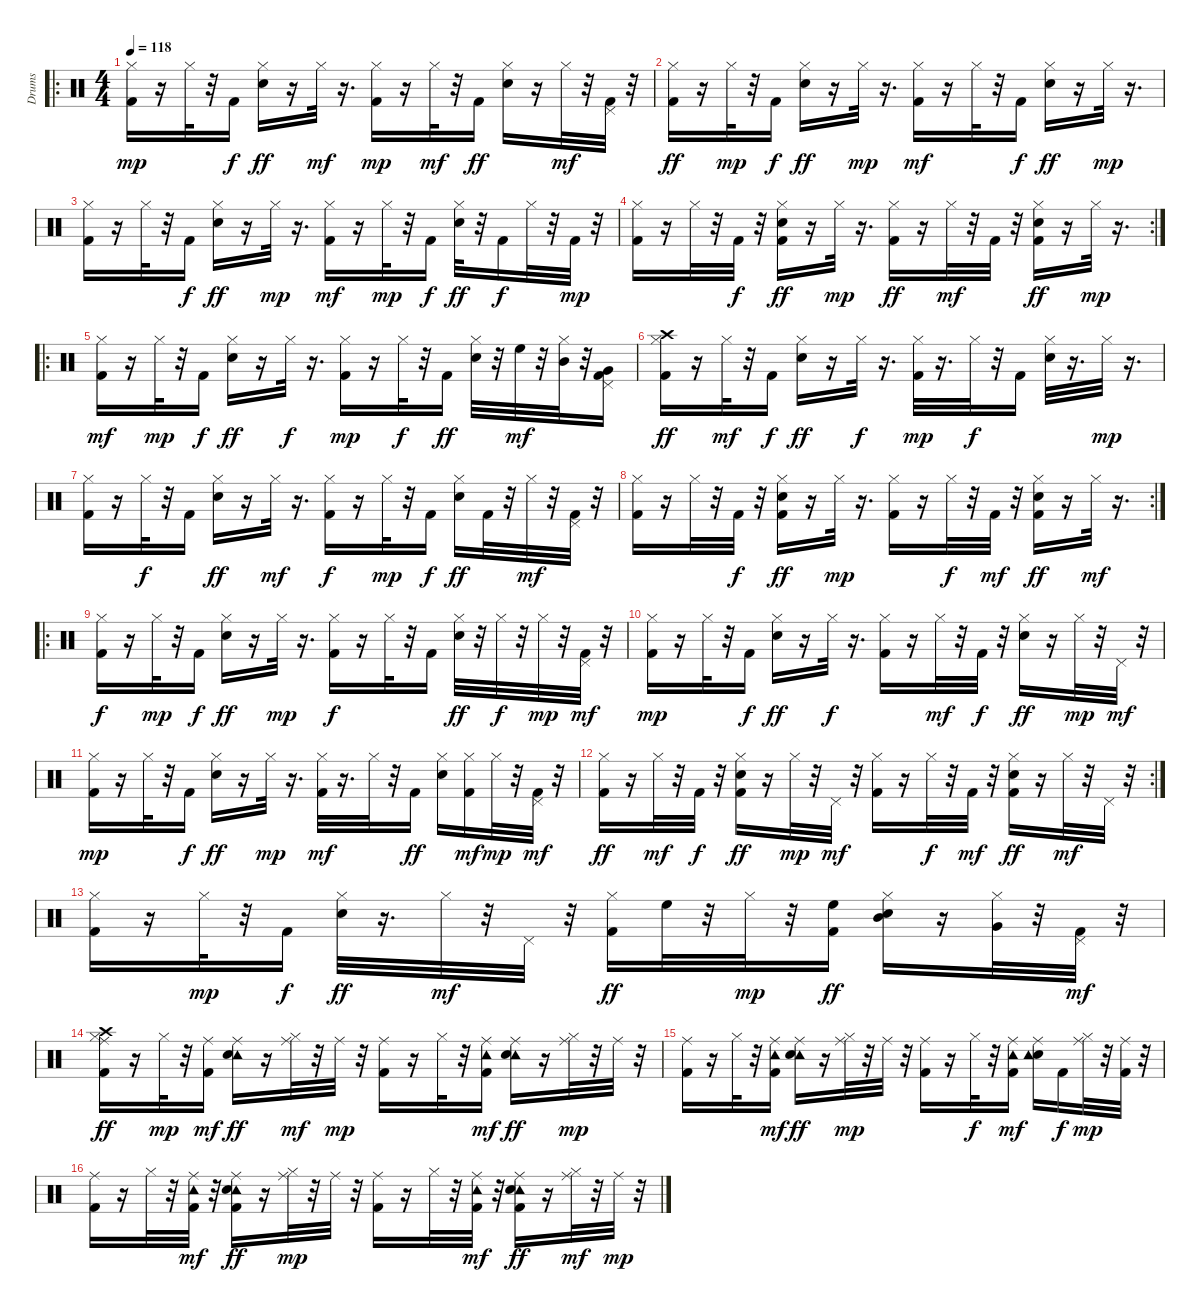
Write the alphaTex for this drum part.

\track ("Drums" "Drums") {instrument percussion}
\staff {score}
\articulation defaults
\ro
\ts (4 4)
\tempo 118
\clef neutral
\ks c
("Hi-Hat (closed)" "Kick (hit) 2").16{dy mp} r.16 "Hi-Hat (closed)".32 r.32 "Kick (hit) 2".16{dy f} ("Hi-Hat (closed)" "Electric Snare (hit)").16{dy ff} r.16 "Hi-Hat (closed)".32{dy mf} r.16{d} ("Kick (hit) 2" "Hi-Hat (closed)").16{dy mp} r.16 "Hi-Hat (closed)".32{dy mf} r.32 "Kick (hit) 2".16{dy ff} ("Hi-Hat (closed)" "Electric Snare (hit)").16 r.16 "Hi-Hat (closed)".32{dy mf} r.32 ("Kick (hit) 2" "Pedal Hi-Hat (hit)").32 r.32 |
("Kick (hit) 2" "Hi-Hat (closed)").16{dy ff} r.16 "Hi-Hat (closed)".32{dy mp} r.32 "Kick (hit) 2".16{dy f} ("Hi-Hat (closed)" "Electric Snare (hit)").16{dy ff} r.16 "Hi-Hat (closed)".32{dy mp} r.16{d} ("Kick (hit) 2" "Hi-Hat (closed)").16{dy mf} r.16 "Hi-Hat (closed)".32 r.32 "Kick (hit) 2".16{dy f} ("Hi-Hat (closed)" "Electric Snare (hit)").16{dy ff} r.16 "Hi-Hat (closed)".32{dy mp} r.16{d} |
("Kick (hit) 2" "Hi-Hat (closed)").16 r.16 "Hi-Hat (closed)".32 r.32 "Kick (hit) 2".16{dy f} ("Hi-Hat (closed)" "Electric Snare (hit)").16{dy ff} r.16 "Hi-Hat (closed)".32{dy mp} r.16{d} ("Kick (hit) 2" "Hi-Hat (closed)").16{dy mf} r.16 "Hi-Hat (closed)".32{dy mp} r.32 "Kick (hit) 2".16{dy f} ("Hi-Hat (closed)" "Electric Snare (hit)").32{dy ff} r.32 "Kick (hit) 2".16{dy f} "Hi-Hat (closed)".32 r.32 "Kick (hit) 2".32{dy mp} r.32 |
\rc 2
("Hi-Hat (closed)" "Kick (hit) 2").16 r.16 "Hi-Hat (closed)".32 r.32 "Kick (hit) 2".32{dy f} r.32 ("Kick (hit) 2" "Hi-Hat (closed)" "Electric Snare (hit)").16{dy ff} r.16 "Hi-Hat (closed)".32{dy mp} r.16{d} ("Hi-Hat (closed)" "Kick (hit) 2").16{dy ff} r.16 "Hi-Hat (closed)".32{dy mf} r.32 "Kick (hit) 2".32 r.32 ("Kick (hit) 2" "Hi-Hat (closed)" "Electric Snare (hit)").16{dy ff} r.16 "Hi-Hat (closed)".32{dy mp} r.16{d} |
\ro
("Kick (hit) 2" "Hi-Hat (closed)").16{dy mf} r.16 "Hi-Hat (closed)".32{dy mp} r.32 "Kick (hit) 2".16{dy f} ("Hi-Hat (closed)" "Electric Snare (hit)").16{dy ff} r.16 "Hi-Hat (closed)".32{dy f} r.16{d} ("Kick (hit) 2" "Hi-Hat (closed)").16{dy mp} r.16 "Hi-Hat (closed)".32{dy f} r.32 "Kick (hit) 2".16{dy ff} ("Hi-Hat (closed)" "Electric Snare (hit)").32 r.32 "High Floor Tom (hit)".32{dy mf} r.32 ("Hi-Hat (closed)" "Mid Tom (hit)").32 r.32 ("Pedal Hi-Hat (hit)" "Kick (hit) 2" "Very Low Tom (hit)").16 |
("Kick (hit) 2" "Hi-Hat (closed)" "Crash high (hit)").16{dy ff} r.16 "Hi-Hat (closed)".32{dy mf} r.32 "Kick (hit) 2".16{dy f} ("Hi-Hat (closed)" "Electric Snare (hit)").16{dy ff} r.16 "Hi-Hat (closed)".32{dy f} r.16{d} ("Kick (hit) 2" "Hi-Hat (closed)").32{dy mp} r.16{d} "Hi-Hat (closed)".32{dy f} r.32 "Kick (hit) 2".16 ("Hi-Hat (closed)" "Electric Snare (hit)").32 r.16{d} "Hi-Hat (closed)".32{dy mp} r.16{d} |
("Kick (hit) 2" "Hi-Hat (closed)").16 r.16 "Hi-Hat (closed)".32{dy f} r.32 "Kick (hit) 2".16 ("Hi-Hat (closed)" "Electric Snare (hit)").16{dy ff} r.16 "Hi-Hat (closed)".32{dy mf} r.16{d} ("Kick (hit) 2" "Hi-Hat (closed)").16{dy f} r.16 "Hi-Hat (closed)".32{dy mp} r.32 "Kick (hit) 2".16{dy f} ("Hi-Hat (closed)" "Electric Snare (hit)").16{dy ff} "Kick (hit) 2".32 r.32 "Hi-Hat (closed)".32{dy mf} r.32 ("Kick (hit) 2" "Pedal Hi-Hat (hit)").32 r.32 |
\rc 2
("Kick (hit) 2" "Hi-Hat (closed)").16 r.16 "Hi-Hat (closed)".32 r.32 "Kick (hit) 2".32{dy f} r.32 ("Hi-Hat (closed)" "Kick (hit) 2" "Electric Snare (hit)").16{dy ff} r.16 "Hi-Hat (closed)".32{dy mp} r.16{d} ("Kick (hit) 2" "Hi-Hat (closed)").16 r.16 "Hi-Hat (closed)".32{dy f} r.32 "Kick (hit) 2".32{dy mf} r.32 ("Kick (hit) 2" "Hi-Hat (closed)" "Electric Snare (hit)").16{dy ff} r.16 "Hi-Hat (closed)".32{dy mf} r.16{d} |
\ro
("Kick (hit) 2" "Hi-Hat (closed)").16{dy f} r.16 "Hi-Hat (closed)".32{dy mp} r.32 "Kick (hit) 2".16{dy f} ("Hi-Hat (closed)" "Electric Snare (hit)").16{dy ff} r.16 "Hi-Hat (closed)".32{dy mp} r.16{d} ("Kick (hit) 2" "Hi-Hat (closed)").16{dy f} r.16 "Hi-Hat (closed)".32 r.32 "Kick (hit) 2".16 ("Hi-Hat (closed)" "Electric Snare (hit)").32{dy ff} r.32 "Hi-Hat (closed)".32{dy f} r.32 "Hi-Hat (closed)".32{dy mp} r.32 ("Kick (hit) 2" "Pedal Hi-Hat (hit)").32{dy mf} r.32 |
("Hi-Hat (closed)" "Kick (hit) 2").16{dy mp} r.16 "Hi-Hat (closed)".32 r.32 "Kick (hit) 2".16{dy f} ("Hi-Hat (closed)" "Electric Snare (hit)").16{dy ff} r.16 "Hi-Hat (closed)".32{dy f} r.16{d} ("Kick (hit) 2" "Hi-Hat (closed)").16 r.16 "Hi-Hat (closed)".32{dy mf} r.32 "Kick (hit) 2".32{dy f} r.32 ("Electric Snare (hit)" "Hi-Hat (closed)").16{dy ff} r.16 "Hi-Hat (closed)".32{dy mp} r.32 "Pedal Hi-Hat (hit)".32{dy mf} r.32 |
("Kick (hit) 2" "Hi-Hat (closed)").16{dy mp} r.16 "Hi-Hat (closed)".32 r.32 "Kick (hit) 2".16{dy f} ("Hi-Hat (closed)" "Electric Snare (hit)").16{dy ff} r.16 "Hi-Hat (closed)".32{dy mp} r.16{d} ("Kick (hit) 2" "Hi-Hat (closed)").32{dy mf} r.16{d} "Hi-Hat (closed)".32 r.32 "Kick (hit) 2".16{dy ff} ("Hi-Hat (closed)" "Electric Snare (hit)").16 ("Kick (hit) 2" "Hi-Hat (closed)").16{dy mf} "Hi-Hat (closed)".32{dy mp} r.32 ("Kick (hit) 2" "Pedal Hi-Hat (hit)").32{dy mf} r.32 |
\rc 2
("Kick (hit) 2" "Hi-Hat (closed)").16{dy ff} r.16 "Hi-Hat (closed)".32{dy mf} r.32 "Kick (hit) 2".32{dy f} r.32 ("Kick (hit) 2" "Hi-Hat (closed)" "Electric Snare (hit)").16{dy ff} r.16 "Hi-Hat (closed)".32{dy mp} r.32 "Pedal Hi-Hat (hit)".32{dy mf} r.32 ("Kick (hit) 2" "Hi-Hat (closed)").16 r.16 "Hi-Hat (closed)".32{dy f} r.32 "Kick (hit) 2".32{dy mf} r.32 ("Kick (hit) 2" "Hi-Hat (closed)" "Electric Snare (hit)").16{dy ff} r.16 "Hi-Hat (closed)".32{dy mf} r.32 "Pedal Hi-Hat (hit)".32 r.32 |
("Hi-Hat (closed)" "Kick (hit) 2").16 r.16 "Hi-Hat (closed)".32{dy mp} r.32 "Kick (hit) 2".16{dy f} ("Hi-Hat (closed)" "Electric Snare (hit)").32{dy ff} r.16{d} "Hi-Hat (closed)".32{dy mf} r.32 "Pedal Hi-Hat (hit)".32 r.32 ("Hi-Hat (closed)" "Kick (hit) 2").16{dy ff} "High Floor Tom (hit)".32 r.32 "Hi-Hat (closed)".32{dy mp} r.32 ("Kick (hit) 2" "High Floor Tom (hit)").16{dy ff} ("Mid Tom (hit)" "Hi-Hat (closed)" "Electric Snare (hit)").16 r.16 ("Hi-Hat (closed)" "Very Low Tom (hit)").32 r.32 ("Kick (hit) 2" "Pedal Hi-Hat (hit)").32{dy mf} r.32 |
("Hi-Hat (closed)" "Kick (hit) 2" "Ride (middle)" "Crash high (hit)").16{dy ff} r.16 "Hi-Hat (closed)".32{dy mp} r.32 ("Ride (middle)" "Kick (hit) 2").16{dy mf} ("Ride (middle)" "Tambourine (hit)" "Electric Snare (hit)").16{dy ff} r.16 ("Ride (middle)" "Hi-Hat (closed)").32{dy mf} r.32 "Ride (middle)".32{dy mp} r.32 ("Kick (hit) 2" "Ride (middle)").16 r.16 "Hi-Hat (closed)".32 r.32 ("Kick (hit) 2" "Tambourine (hit)" "Ride (middle)").16{dy mf} ("Ride (middle)" "Tambourine (hit)" "Electric Snare (hit)").16{dy ff} r.16 ("Hi-Hat (closed)" "Ride (middle)").32{dy mp} r.32 "Ride (middle)".32 r.32 |
("Kick (hit) 2" "Ride (middle)").16 r.16 "Hi-Hat (closed)".32 r.32 ("Ride (middle)" "Tambourine (hit)" "Kick (hit) 2").16{dy mf} ("Ride (middle)" "Tambourine (hit)" "Electric Snare (hit)").16{dy ff} r.16 ("Hi-Hat (closed)" "Ride (middle)").32{dy mp} r.32 "Ride (middle)".32 r.32 ("Ride (middle)" "Kick (hit) 2").16 r.16 "Hi-Hat (closed)".32{dy f} r.32 ("Ride (middle)" "Kick (hit) 2" "Tambourine (hit)").16{dy mf} ("Electric Snare (hit)" "Tambourine (hit)" "Ride (middle)").16 "Kick (hit) 2".16{dy f} ("Hi-Hat (closed)" "Ride (middle)").32{dy mp} r.32 ("Kick (hit) 2" "Ride (middle)").32 r.32 |
("Kick (hit) 2" "Ride (middle)").16 r.16 "Hi-Hat (closed)".32 r.32 ("Kick (hit) 2" "Ride (middle)" "Tambourine (hit)").32{dy mf} r.32 ("Ride (middle)" "Kick (hit) 2" "Tambourine (hit)" "Electric Snare (hit)").16{dy ff} r.16 ("Ride (middle)" "Hi-Hat (closed)").32{dy mp} r.32 "Ride (middle)".32 r.32 ("Kick (hit) 2" "Ride (middle)").16 r.16 "Hi-Hat (closed)".32 r.32 ("Kick (hit) 2" "Ride (middle)" "Tambourine (hit)").32{dy mf} r.32 ("Kick (hit) 2" "Tambourine (hit)" "Ride (middle)" "Electric Snare (hit)").16{dy ff} r.16 ("Ride (middle)" "Hi-Hat (closed)").32{dy mf} r.32 "Ride (middle)".32{dy mp} r.32
